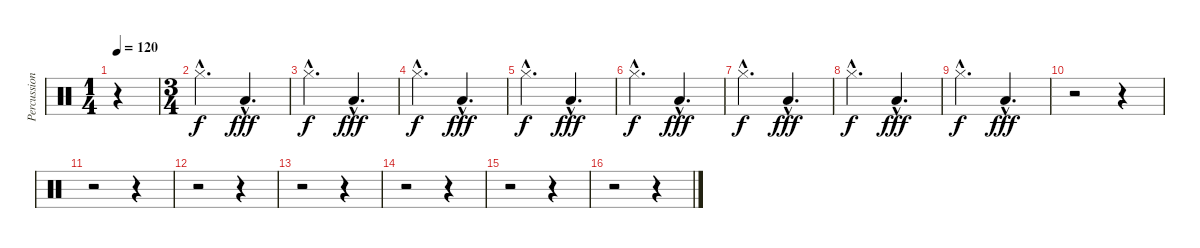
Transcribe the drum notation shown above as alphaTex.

\track ("Percussions" "Percussion") {instrument percussion}
\staff {score}
\articulation defaults
\ts (1 4)
\tempo 120
\clef neutral
\ks c
r.4{dy f} |
\ts (3 4)
"Hi-Hat (closed)"{hac}.4{d} "Low Tom (hit)"{hac}.4{d dy fff} |
"Hi-Hat (closed)"{hac}.4{d dy f} "Low Tom (hit)"{hac}.4{d dy fff} |
"Hi-Hat (closed)"{hac}.4{d dy f} "Low Tom (hit)"{hac}.4{d dy fff} |
"Hi-Hat (closed)"{hac}.4{d dy f} "Low Tom (hit)"{hac}.4{d dy fff} |
"Hi-Hat (closed)"{hac}.4{d dy f} "Low Tom (hit)"{hac}.4{d dy fff} |
"Hi-Hat (closed)"{hac}.4{d dy f} "Low Tom (hit)"{hac}.4{d dy fff} |
"Hi-Hat (closed)"{hac}.4{d dy f} "Low Tom (hit)"{hac}.4{d dy fff} |
"Hi-Hat (closed)"{hac}.4{d dy f} "Low Tom (hit)"{hac}.4{d dy fff} |
r.2 r.4 |
r.2 r.4 |
r.2 r.4 |
r.2 r.4 |
r.2 r.4 |
r.2 r.4 |
r.2 r.4
